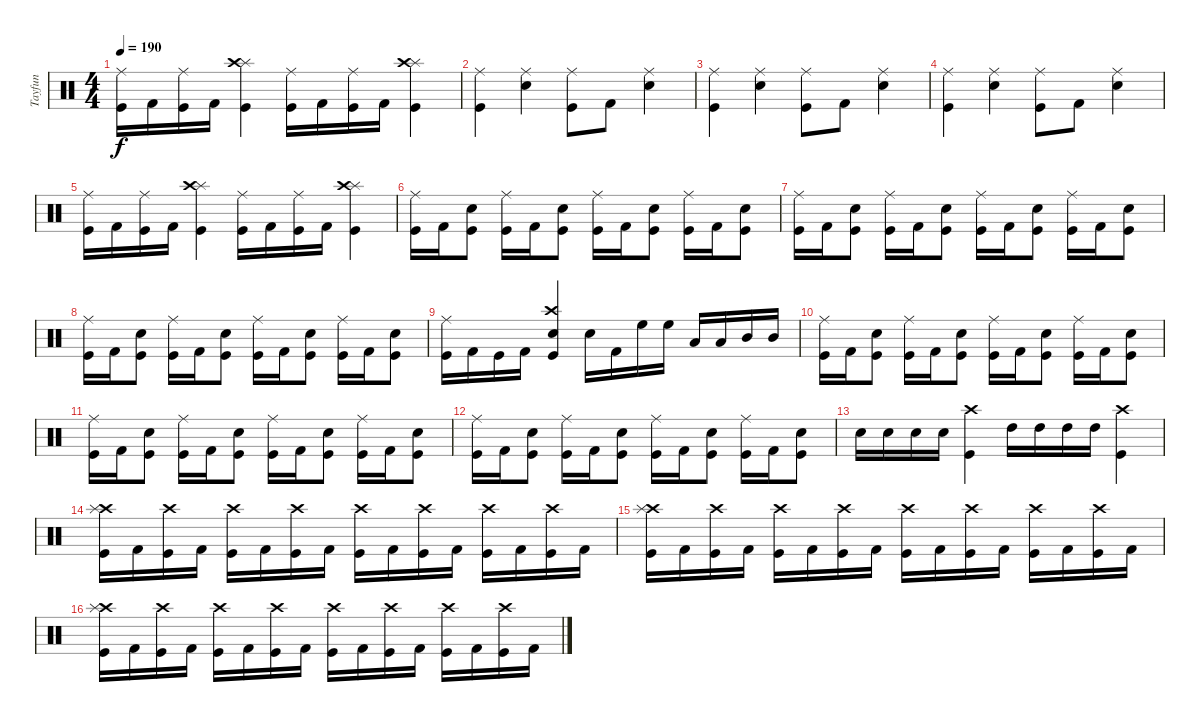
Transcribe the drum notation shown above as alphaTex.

\track ("Tayfun" "Tayfun") {instrument percussion}
\staff {score}
\articulation defaults
\ts (4 4)
\tempo 190
\clef neutral
\ks c
("Ride (middle)" "Kick (hit)").16{dy f} "Kick (hit) 2".16 ("Ride (middle)" "Kick (hit)").16 "Kick (hit) 2".16 ("Splash (hit)" "Crash high (hit)" "Kick (hit)").4 ("Ride (middle)" "Kick (hit)").16 "Kick (hit) 2".16 ("Ride (middle)" "Kick (hit)").16 "Kick (hit) 2".16 ("Splash (hit)" "Crash high (hit)" "Kick (hit)").4 |
("Ride (middle)" "Kick (hit)").4 ("Ride (middle)" "Snare (hit) 2").4 ("Ride (middle)" "Kick (hit)").8 "Kick (hit) 2".8 ("Ride (middle)" "Snare (hit) 2").4 |
("Ride (middle)" "Kick (hit)").4 ("Ride (middle)" "Snare (hit) 2").4 ("Ride (middle)" "Kick (hit)").8 "Kick (hit) 2".8 ("Ride (middle)" "Snare (hit) 2").4 |
("Ride (middle)" "Kick (hit)").4 ("Ride (middle)" "Snare (hit) 2").4 ("Ride (middle)" "Kick (hit)").8 "Kick (hit) 2".8 ("Ride (middle)" "Snare (hit) 2").4 |
("Ride (middle)" "Kick (hit)").16 "Kick (hit) 2".16 ("Ride (middle)" "Kick (hit)").16 "Kick (hit) 2".16 ("Splash (hit)" "Crash high (hit)" "Kick (hit)").4 ("Ride (middle)" "Kick (hit)").16 "Kick (hit) 2".16 ("Ride (middle)" "Kick (hit)").16 "Kick (hit) 2".16 ("Splash (hit)" "Crash high (hit)" "Kick (hit)").4 |
("Kick (hit)" "Ride (middle)").16 "Kick (hit) 2".16 ("Kick (hit)" "Snare (hit) 2").8 ("Kick (hit)" "Ride (middle)").16 "Kick (hit) 2".16 ("Kick (hit)" "Snare (hit) 2").8 ("Kick (hit)" "Ride (middle)").16 "Kick (hit) 2".16 ("Kick (hit)" "Snare (hit) 2").8 ("Kick (hit)" "Ride (middle)").16 "Kick (hit) 2".16 ("Kick (hit)" "Snare (hit) 2").8 |
("Kick (hit)" "Ride (middle)").16 "Kick (hit) 2".16 ("Kick (hit)" "Snare (hit) 2").8 ("Kick (hit)" "Ride (middle)").16 "Kick (hit) 2".16 ("Kick (hit)" "Snare (hit) 2").8 ("Kick (hit)" "Ride (middle)").16 "Kick (hit) 2".16 ("Kick (hit)" "Snare (hit) 2").8 ("Kick (hit)" "Ride (middle)").16 "Kick (hit) 2".16 ("Kick (hit)" "Snare (hit) 2").8 |
("Kick (hit)" "Ride (middle)").16 "Kick (hit) 2".16 ("Kick (hit)" "Snare (hit) 2").8 ("Kick (hit)" "Ride (middle)").16 "Kick (hit) 2".16 ("Kick (hit)" "Snare (hit) 2").8 ("Kick (hit)" "Ride (middle)").16 "Kick (hit) 2".16 ("Kick (hit)" "Snare (hit) 2").8 ("Kick (hit)" "Ride (middle)").16 "Kick (hit) 2".16 ("Kick (hit)" "Snare (hit) 2").8 |
("Kick (hit)" "Ride (middle)").16 "Kick (hit) 2".16 "Kick (hit)".16 "Kick (hit) 2".16 ("Crash high (hit)" "Snare (hit) 2" "Kick (hit)").4 "Snare (hit) 2".16 "Kick (hit) 2".16 "High Floor Tom (hit)".16 "High Floor Tom (hit)".16 "Low Tom (hit)".16 "Low Tom (hit)".16 "Mid Tom (hit)".16 "Mid Tom (hit)".16 |
("Kick (hit)" "Ride (middle)").16 "Kick (hit) 2".16 ("Kick (hit)" "Snare (hit) 2").8 ("Kick (hit)" "Ride (middle)").16 "Kick (hit) 2".16 ("Kick (hit)" "Snare (hit) 2").8 ("Kick (hit)" "Ride (middle)").16 "Kick (hit) 2".16 ("Kick (hit)" "Snare (hit) 2").8 ("Kick (hit)" "Ride (middle)").16 "Kick (hit) 2".16 ("Kick (hit)" "Snare (hit) 2").8 |
("Kick (hit)" "Ride (middle)").16 "Kick (hit) 2".16 ("Kick (hit)" "Snare (hit) 2").8 ("Kick (hit)" "Ride (middle)").16 "Kick (hit) 2".16 ("Kick (hit)" "Snare (hit) 2").8 ("Kick (hit)" "Ride (middle)").16 "Kick (hit) 2".16 ("Kick (hit)" "Snare (hit) 2").8 ("Kick (hit)" "Ride (middle)").16 "Kick (hit) 2".16 ("Kick (hit)" "Snare (hit) 2").8 |
("Kick (hit)" "Ride (middle)").16 "Kick (hit) 2".16 ("Kick (hit)" "Snare (hit) 2").8 ("Kick (hit)" "Ride (middle)").16 "Kick (hit) 2".16 ("Kick (hit)" "Snare (hit) 2").8 ("Kick (hit)" "Ride (middle)").16 "Kick (hit) 2".16 ("Kick (hit)" "Snare (hit) 2").8 ("Kick (hit)" "Ride (middle)").16 "Kick (hit) 2".16 ("Kick (hit)" "Snare (hit) 2").8 |
"Snare (hit) 2".16 "Snare (hit) 2".16 "Snare (hit) 2".16 "Snare (hit) 2".16 ("Crash high (hit)" "Kick (hit)").4 "High Tom (hit)".16 "High Tom (hit)".16 "High Tom (hit)".16 "High Tom (hit)".16 ("Crash high (hit)" "Kick (hit)").4 |
("Crash high (hit)" "Splash (hit)" "Kick (hit)").16 "Kick (hit) 2".16 ("Crash high (hit)" "Kick (hit)").16 "Kick (hit) 2".16 ("Crash high (hit)" "Kick (hit)").16 "Kick (hit) 2".16 ("Crash high (hit)" "Kick (hit)").16 "Kick (hit) 2".16 ("Crash high (hit)" "Kick (hit)").16 "Kick (hit) 2".16 ("Crash high (hit)" "Kick (hit)").16 "Kick (hit) 2".16 ("Crash high (hit)" "Kick (hit)").16 "Kick (hit) 2".16 ("Crash high (hit)" "Kick (hit)").16 "Kick (hit) 2".16 |
("Crash high (hit)" "Splash (hit)" "Kick (hit)").16 "Kick (hit) 2".16 ("Crash high (hit)" "Kick (hit)").16 "Kick (hit) 2".16 ("Crash high (hit)" "Kick (hit)").16 "Kick (hit) 2".16 ("Crash high (hit)" "Kick (hit)").16 "Kick (hit) 2".16 ("Crash high (hit)" "Kick (hit)").16 "Kick (hit) 2".16 ("Crash high (hit)" "Kick (hit)").16 "Kick (hit) 2".16 ("Crash high (hit)" "Kick (hit)").16 "Kick (hit) 2".16 ("Crash high (hit)" "Kick (hit)").16 "Kick (hit) 2".16 |
("Crash high (hit)" "Splash (hit)" "Kick (hit)").16 "Kick (hit) 2".16 ("Crash high (hit)" "Kick (hit)").16 "Kick (hit) 2".16 ("Crash high (hit)" "Kick (hit)").16 "Kick (hit) 2".16 ("Crash high (hit)" "Kick (hit)").16 "Kick (hit) 2".16 ("Crash high (hit)" "Kick (hit)").16 "Kick (hit) 2".16 ("Crash high (hit)" "Kick (hit)").16 "Kick (hit) 2".16 ("Crash high (hit)" "Kick (hit)").16 "Kick (hit) 2".16 ("Crash high (hit)" "Kick (hit)").16 "Kick (hit) 2".16
